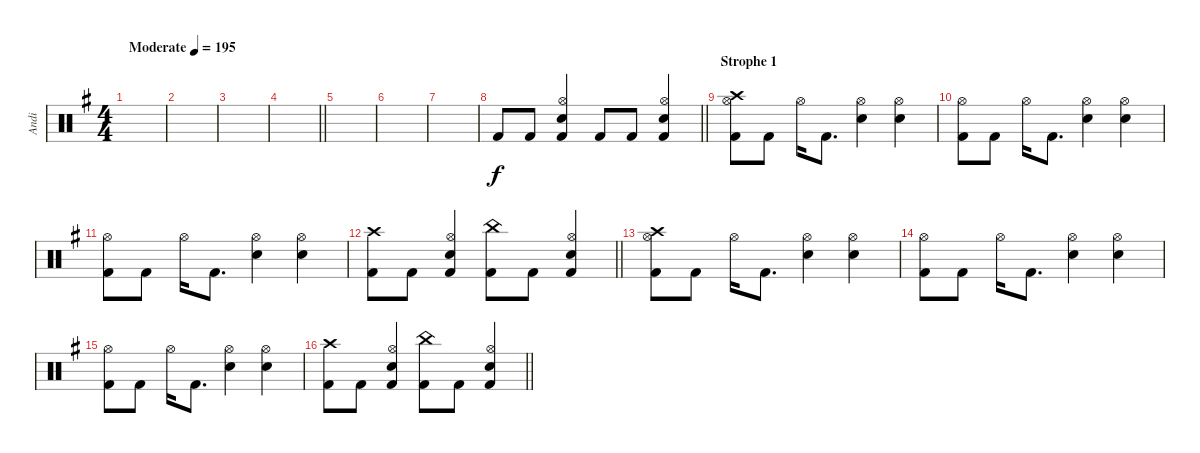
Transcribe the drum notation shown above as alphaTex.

\track ("Andi" "Andi") {instrument percussion}
\staff {score}
\articulation defaults
\ts (4 4)
\tempo (195 "Moderate")
\clef neutral
\ks g
|
|
|
\barLineRight lightlight
|
|
|
|
\barLineRight lightlight "Kick (hit) 2".8 "Kick (hit) 2".8
("Hi-Hat (open)" "Kick (hit) 2" "Snare (hit) 2").4 "Kick (hit) 2".8 "Kick (hit) 2".8 ("Hi-Hat (open)" "Kick (hit) 2" "Snare (hit) 2").4 |
\section ("" "Strophe 1")
("Crash high (hit)" "Hi-Hat (open)" "Kick (hit) 2").8 "Kick (hit) 2".8 "Hi-Hat (open)".16 "Kick (hit) 2".8{d} ("Hi-Hat (open)" "Snare (hit) 2").4 ("Hi-Hat (open)" "Snare (hit) 2").4 |
("Hi-Hat (open)" "Kick (hit) 2").8 "Kick (hit) 2".8 "Hi-Hat (open)".16 "Kick (hit) 2".8{d} ("Hi-Hat (open)" "Snare (hit) 2").4 ("Hi-Hat (open)" "Snare (hit) 2").4 |
("Hi-Hat (open)" "Kick (hit) 2").8 "Kick (hit) 2".8 "Hi-Hat (open)".16 "Kick (hit) 2".8{d} ("Hi-Hat (open)" "Snare (hit) 2").4 ("Hi-Hat (open)" "Snare (hit) 2").4 |
\barLineRight lightlight
("Crash high (hit)" "Kick (hit) 2").8 "Kick (hit) 2".8 ("Hi-Hat (open)" "Kick (hit) 2" "Snare (hit) 2").4 ("China (hit)" "Kick (hit) 2").8 "Kick (hit) 2".8 ("Hi-Hat (open)" "Kick (hit) 2" "Snare (hit) 2").4 |
("Crash high (hit)" "Hi-Hat (open)" "Kick (hit) 2").8 "Kick (hit) 2".8 "Hi-Hat (open)".16 "Kick (hit) 2".8{d} ("Hi-Hat (open)" "Snare (hit) 2").4 ("Hi-Hat (open)" "Snare (hit) 2").4 |
("Hi-Hat (open)" "Kick (hit) 2").8 "Kick (hit) 2".8 "Hi-Hat (open)".16 "Kick (hit) 2".8{d} ("Hi-Hat (open)" "Snare (hit) 2").4 ("Hi-Hat (open)" "Snare (hit) 2").4 |
("Hi-Hat (open)" "Kick (hit) 2").8 "Kick (hit) 2".8 "Hi-Hat (open)".16 "Kick (hit) 2".8{d} ("Hi-Hat (open)" "Snare (hit) 2").4 ("Hi-Hat (open)" "Snare (hit) 2").4 |
\barLineRight lightlight
("Crash high (hit)" "Kick (hit) 2").8 "Kick (hit) 2".8 ("Hi-Hat (open)" "Kick (hit) 2" "Snare (hit) 2").4 ("China (hit)" "Kick (hit) 2").8 "Kick (hit) 2".8 ("Hi-Hat (open)" "Kick (hit) 2" "Snare (hit) 2").4
